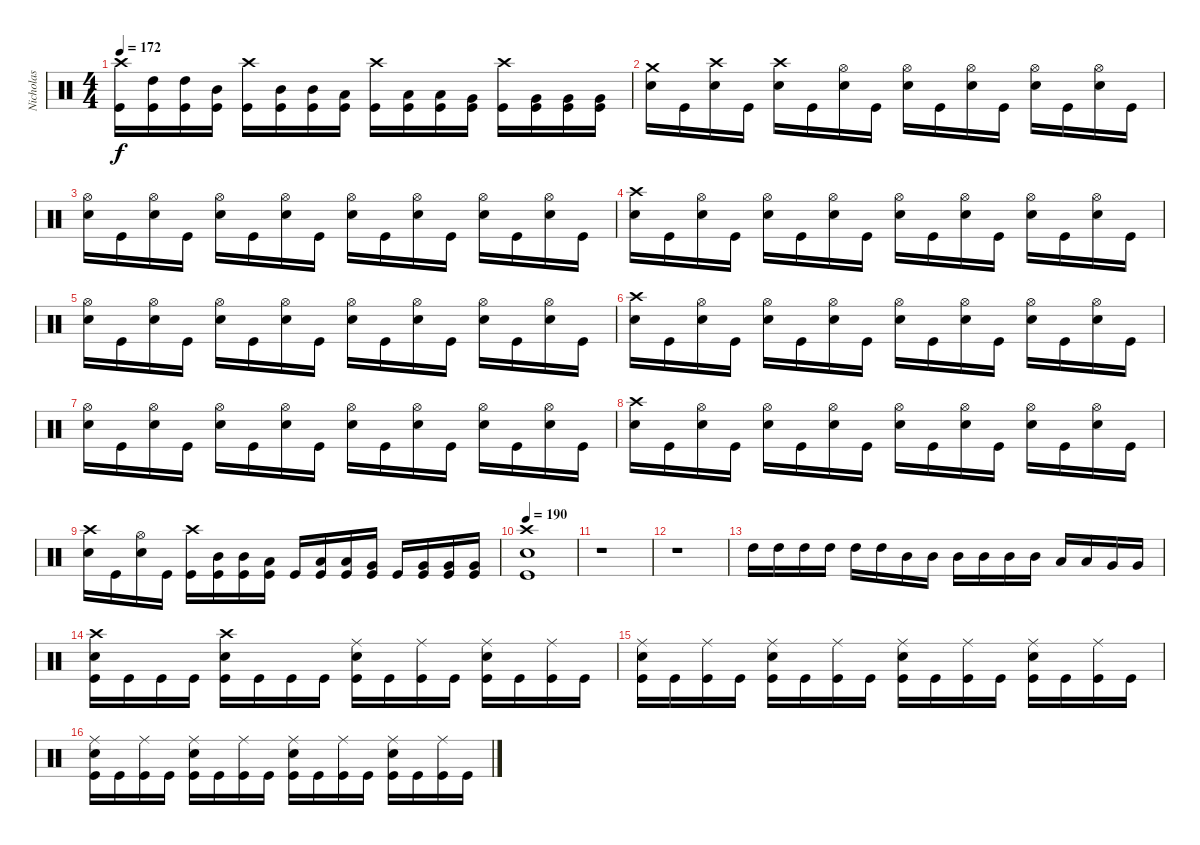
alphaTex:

\track ("Nicholas" "Nicholas") {instrument percussion}
\staff {score}
\articulation defaults
\ts (4 4)
\tempo 172
\clef neutral
\ks c
("Crash high (hit)" "Kick (hit)").16{dy f} ("High Tom (hit)" "Kick (hit)").16 ("High Tom (hit)" "Kick (hit)").16 ("Mid Tom (hit)" "Kick (hit)").16 ("Crash high (hit)" "Kick (hit)").16 ("Mid Tom (hit)" "Kick (hit)").16 ("Mid Tom (hit)" "Kick (hit)").16 ("Low Tom (hit)" "Kick (hit)").16 ("Crash high (hit)" "Kick (hit)").16 ("Low Tom (hit)" "Kick (hit)").16 ("Low Tom (hit)" "Kick (hit)").16 ("Very Low Tom (hit)" "Kick (hit)").16 ("Crash high (hit)" "Kick (hit)").16 ("Very Low Tom (hit)" "Kick (hit)").16 ("Very Low Tom (hit)" "Kick (hit)").16 ("Very Low Tom (hit)" "Kick (hit)").16 |
("Crash medium (hit)" "Electric Snare (hit)").16 "Kick (hit)".16 ("Crash high (hit)" "Electric Snare (hit)").16 "Kick (hit)".16 ("Crash high (hit)" "Electric Snare (hit)").16 "Kick (hit)".16 ("Hi-Hat (open)" "Electric Snare (hit)").16 "Kick (hit)".16 ("Hi-Hat (open)" "Electric Snare (hit)").16 "Kick (hit)".16 ("Hi-Hat (open)" "Electric Snare (hit)").16 "Kick (hit)".16 ("Hi-Hat (open)" "Electric Snare (hit)").16 "Kick (hit)".16 ("Hi-Hat (open)" "Electric Snare (hit)").16 "Kick (hit)".16 |
("Hi-Hat (open)" "Electric Snare (hit)").16 "Kick (hit)".16 ("Hi-Hat (open)" "Electric Snare (hit)").16 "Kick (hit)".16 ("Hi-Hat (open)" "Electric Snare (hit)").16 "Kick (hit)".16 ("Hi-Hat (open)" "Electric Snare (hit)").16 "Kick (hit)".16 ("Hi-Hat (open)" "Electric Snare (hit)").16 "Kick (hit)".16 ("Hi-Hat (open)" "Electric Snare (hit)").16 "Kick (hit)".16 ("Hi-Hat (open)" "Electric Snare (hit)").16 "Kick (hit)".16 ("Hi-Hat (open)" "Electric Snare (hit)").16 "Kick (hit)".16 |
("Crash high (hit)" "Electric Snare (hit)").16 "Kick (hit)".16 ("Hi-Hat (open)" "Electric Snare (hit)").16 "Kick (hit)".16 ("Hi-Hat (open)" "Electric Snare (hit)").16 "Kick (hit)".16 ("Hi-Hat (open)" "Electric Snare (hit)").16 "Kick (hit)".16 ("Hi-Hat (open)" "Electric Snare (hit)").16 "Kick (hit)".16 ("Hi-Hat (open)" "Electric Snare (hit)").16 "Kick (hit)".16 ("Hi-Hat (open)" "Electric Snare (hit)").16 "Kick (hit)".16 ("Hi-Hat (open)" "Electric Snare (hit)").16 "Kick (hit)".16 |
("Hi-Hat (open)" "Electric Snare (hit)").16 "Kick (hit)".16 ("Hi-Hat (open)" "Electric Snare (hit)").16 "Kick (hit)".16 ("Hi-Hat (open)" "Electric Snare (hit)").16 "Kick (hit)".16 ("Hi-Hat (open)" "Electric Snare (hit)").16 "Kick (hit)".16 ("Hi-Hat (open)" "Electric Snare (hit)").16 "Kick (hit)".16 ("Hi-Hat (open)" "Electric Snare (hit)").16 "Kick (hit)".16 ("Hi-Hat (open)" "Electric Snare (hit)").16 "Kick (hit)".16 ("Hi-Hat (open)" "Electric Snare (hit)").16 "Kick (hit)".16 |
("Crash high (hit)" "Electric Snare (hit)").16 "Kick (hit)".16 ("Hi-Hat (open)" "Electric Snare (hit)").16 "Kick (hit)".16 ("Hi-Hat (open)" "Electric Snare (hit)").16 "Kick (hit)".16 ("Hi-Hat (open)" "Electric Snare (hit)").16 "Kick (hit)".16 ("Hi-Hat (open)" "Electric Snare (hit)").16 "Kick (hit)".16 ("Hi-Hat (open)" "Electric Snare (hit)").16 "Kick (hit)".16 ("Hi-Hat (open)" "Electric Snare (hit)").16 "Kick (hit)".16 ("Hi-Hat (open)" "Electric Snare (hit)").16 "Kick (hit)".16 |
("Hi-Hat (open)" "Electric Snare (hit)").16 "Kick (hit)".16 ("Hi-Hat (open)" "Electric Snare (hit)").16 "Kick (hit)".16 ("Hi-Hat (open)" "Electric Snare (hit)").16 "Kick (hit)".16 ("Hi-Hat (open)" "Electric Snare (hit)").16 "Kick (hit)".16 ("Hi-Hat (open)" "Electric Snare (hit)").16 "Kick (hit)".16 ("Hi-Hat (open)" "Electric Snare (hit)").16 "Kick (hit)".16 ("Hi-Hat (open)" "Electric Snare (hit)").16 "Kick (hit)".16 ("Hi-Hat (open)" "Electric Snare (hit)").16 "Kick (hit)".16 |
("Crash high (hit)" "Electric Snare (hit)").16 "Kick (hit)".16 ("Hi-Hat (open)" "Electric Snare (hit)").16 "Kick (hit)".16 ("Hi-Hat (open)" "Electric Snare (hit)").16 "Kick (hit)".16 ("Hi-Hat (open)" "Electric Snare (hit)").16 "Kick (hit)".16 ("Hi-Hat (open)" "Electric Snare (hit)").16 "Kick (hit)".16 ("Hi-Hat (open)" "Electric Snare (hit)").16 "Kick (hit)".16 ("Hi-Hat (open)" "Electric Snare (hit)").16 "Kick (hit)".16 ("Hi-Hat (open)" "Electric Snare (hit)").16 "Kick (hit)".16 |
("Crash high (hit)" "Electric Snare (hit)").16 "Kick (hit)".16 ("Hi-Hat (open)" "Electric Snare (hit)").16 "Kick (hit)".16 ("Crash high (hit)" "Kick (hit)").16 ("Mid Tom (hit)" "Kick (hit)").16 ("Mid Tom (hit)" "Kick (hit)").16 ("Low Tom (hit)" "Kick (hit)").16 "Kick (hit)".16 ("Low Tom (hit)" "Kick (hit)").16 ("Low Tom (hit)" "Kick (hit)").16 ("Very Low Tom (hit)" "Kick (hit)").16 "Kick (hit)".16 ("Very Low Tom (hit)" "Kick (hit)").16 ("Very Low Tom (hit)" "Kick (hit)").16 ("Very Low Tom (hit)" "Kick (hit)").16 |
\tempo 190
("Crash high (hit)" "Electric Snare (hit)" "Kick (hit)").1 |
r.1 |
r.1 |
"High Tom (hit)".16 "High Tom (hit)".16 "High Tom (hit)".16 "High Tom (hit)".16 "High Tom (hit)".16 "High Tom (hit)".16 "Mid Tom (hit)".16 "Mid Tom (hit)".16 "Mid Tom (hit)".16 "Mid Tom (hit)".16 "Mid Tom (hit)".16 "Mid Tom (hit)".16 "Low Tom (hit)".16 "Low Tom (hit)".16 "Very Low Tom (hit)".16 "Very Low Tom (hit)".16 |
("Crash high (hit)" "Electric Snare (hit)" "Kick (hit)").16 "Kick (hit)".16 "Kick (hit)".16 "Kick (hit)".16 ("Crash high (hit)" "Electric Snare (hit)" "Kick (hit)").16 "Kick (hit)".16 "Kick (hit)".16 "Kick (hit)".16 ("Ride (middle)" "Electric Snare (hit)" "Kick (hit)").16 "Kick (hit)".16 ("Ride (middle)" "Kick (hit)").16 "Kick (hit)".16 ("Ride (middle)" "Electric Snare (hit)" "Kick (hit)").16 "Kick (hit)".16 ("Ride (middle)" "Kick (hit)").16 "Kick (hit)".16 |
("Ride (middle)" "Electric Snare (hit)" "Kick (hit)").16 "Kick (hit)".16 ("Ride (middle)" "Kick (hit)").16 "Kick (hit)".16 ("Ride (middle)" "Electric Snare (hit)" "Kick (hit)").16 "Kick (hit)".16 ("Ride (middle)" "Kick (hit)").16 "Kick (hit)".16 ("Ride (middle)" "Electric Snare (hit)" "Kick (hit)").16 "Kick (hit)".16 ("Ride (middle)" "Kick (hit)").16 "Kick (hit)".16 ("Ride (middle)" "Electric Snare (hit)" "Kick (hit)").16 "Kick (hit)".16 ("Ride (middle)" "Kick (hit)").16 "Kick (hit)".16 |
("Ride (middle)" "Electric Snare (hit)" "Kick (hit)").16 "Kick (hit)".16 ("Ride (middle)" "Kick (hit)").16 "Kick (hit)".16 ("Ride (middle)" "Electric Snare (hit)" "Kick (hit)").16 "Kick (hit)".16 ("Ride (middle)" "Kick (hit)").16 "Kick (hit)".16 ("Ride (middle)" "Electric Snare (hit)" "Kick (hit)").16 "Kick (hit)".16 ("Ride (middle)" "Kick (hit)").16 "Kick (hit)".16 ("Ride (middle)" "Electric Snare (hit)" "Kick (hit)").16 "Kick (hit)".16 ("Ride (middle)" "Kick (hit)").16 "Kick (hit)".16
